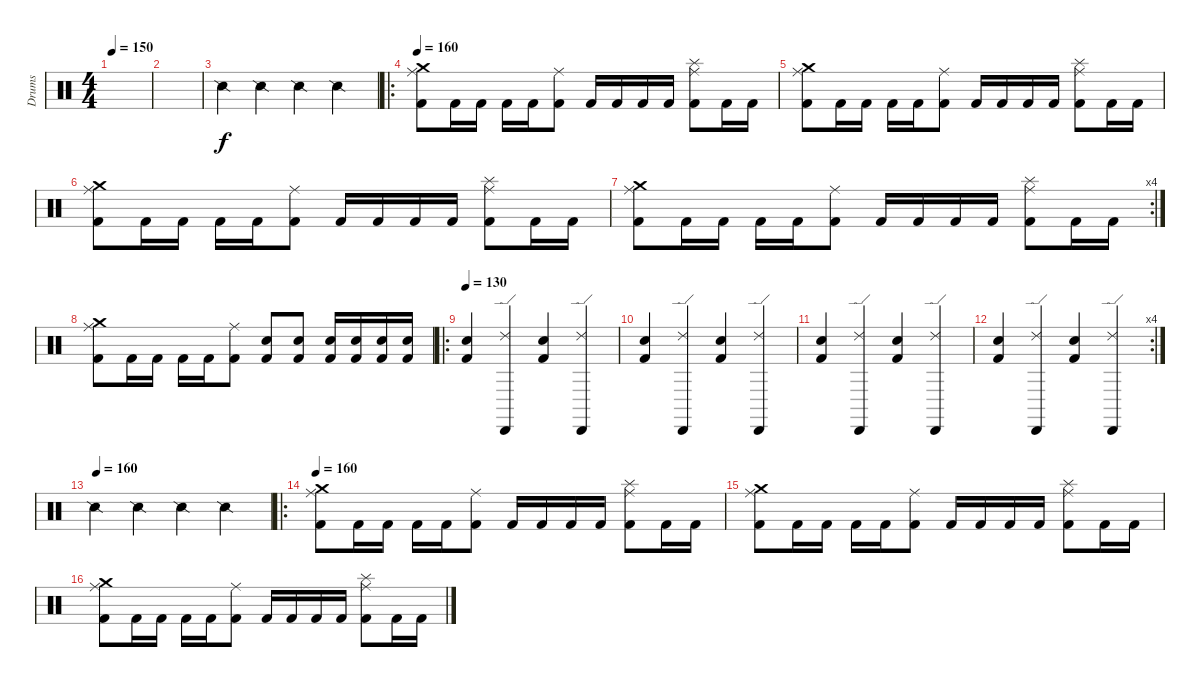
\track ("Drums" "Drums") {instrument percussion}
\staff {score}
\articulation defaults
\ts (4 4)
\tempo 150
\clef neutral
\ks c
|
|
"Snare (side stick) 2".4 "Snare (side stick) 2".4 "Snare (side stick) 2".4 "Snare (side stick) 2".4 |
\ro
\tempo 160
("Crash medium (hit)" "Ride (middle)" "Kick (hit) 2").8 "Kick (hit) 2".16 "Kick (hit) 2".16 "Kick (hit) 2".16 "Kick (hit) 2".16 ("Ride (middle)" "Kick (hit) 2").8 "Kick (hit) 2".16 "Kick (hit) 2".16 "Kick (hit) 2".16 "Kick (hit) 2".16 ("Splash (hit)" "Ride (middle)" "Kick (hit) 2").8 "Kick (hit) 2".16 "Kick (hit) 2".16 |
("Crash medium (hit)" "Ride (middle)" "Kick (hit) 2").8 "Kick (hit) 2".16 "Kick (hit) 2".16 "Kick (hit) 2".16 "Kick (hit) 2".16 ("Ride (middle)" "Kick (hit) 2").8 "Kick (hit) 2".16 "Kick (hit) 2".16 "Kick (hit) 2".16 "Kick (hit) 2".16 ("Splash (hit)" "Ride (middle)" "Kick (hit) 2").8 "Kick (hit) 2".16 "Kick (hit) 2".16 |
("Crash medium (hit)" "Ride (middle)" "Kick (hit) 2").8 "Kick (hit) 2".16 "Kick (hit) 2".16 "Kick (hit) 2".16 "Kick (hit) 2".16 ("Ride (middle)" "Kick (hit) 2").8 "Kick (hit) 2".16 "Kick (hit) 2".16 "Kick (hit) 2".16 "Kick (hit) 2".16 ("Splash (hit)" "Ride (middle)" "Kick (hit) 2").8 "Kick (hit) 2".16 "Kick (hit) 2".16 |
\rc 4
("Crash medium (hit)" "Ride (middle)" "Kick (hit) 2").8 "Kick (hit) 2".16 "Kick (hit) 2".16 "Kick (hit) 2".16 "Kick (hit) 2".16 ("Ride (middle)" "Kick (hit) 2").8 "Kick (hit) 2".16 "Kick (hit) 2".16 "Kick (hit) 2".16 "Kick (hit) 2".16 ("Splash (hit)" "Ride (middle)" "Kick (hit) 2").8 "Kick (hit) 2".16 "Kick (hit) 2".16 |
("Crash medium (hit)" "Ride (middle)" "Kick (hit) 2").8 "Kick (hit) 2".16 "Kick (hit) 2".16 "Kick (hit) 2".16 "Kick (hit) 2".16 ("Ride (middle)" "Kick (hit) 2").8 ("Snare (hit) 2" "Kick (hit) 2").8 ("Snare (hit) 2" "Kick (hit) 2").8 ("Snare (hit) 2" "Kick (hit) 2").16 ("Snare (hit) 2" "Kick (hit) 2").16 ("Snare (hit) 2" "Kick (hit) 2").16 ("Snare (hit) 2" "Kick (hit) 2").16 |
\ro
\tempo 130
("Kick (hit) 2" "Snare (hit) 2").4 ("Ride (edge) 2" "Cabasa (hit)").4 ("Kick (hit) 2" "Snare (hit) 2").4 ("Ride (edge) 2" "Cabasa (hit)").4 |
("Kick (hit) 2" "Snare (hit) 2").4 ("Ride (edge) 2" "Cabasa (hit)").4 ("Kick (hit) 2" "Snare (hit) 2").4 ("Ride (edge) 2" "Cabasa (hit)").4 |
("Kick (hit) 2" "Snare (hit) 2").4 ("Ride (edge) 2" "Cabasa (hit)").4 ("Kick (hit) 2" "Snare (hit) 2").4 ("Ride (edge) 2" "Cabasa (hit)").4 |
\rc 4
("Kick (hit) 2" "Snare (hit) 2").4 ("Ride (edge) 2" "Cabasa (hit)").4 ("Kick (hit) 2" "Snare (hit) 2").4 ("Ride (edge) 2" "Cabasa (hit)").4 |
\tempo (160)
"Snare (side stick) 2".4 "Snare (side stick) 2".4 "Snare (side stick) 2".4 "Snare (side stick) 2".4 |
\ro
\tempo 160
("Crash medium (hit)" "Ride (middle)" "Kick (hit) 2").8 "Kick (hit) 2".16 "Kick (hit) 2".16 "Kick (hit) 2".16 "Kick (hit) 2".16 ("Ride (middle)" "Kick (hit) 2").8 "Kick (hit) 2".16 "Kick (hit) 2".16 "Kick (hit) 2".16 "Kick (hit) 2".16 ("Splash (hit)" "Ride (middle)" "Kick (hit) 2").8 "Kick (hit) 2".16 "Kick (hit) 2".16 |
("Crash medium (hit)" "Ride (middle)" "Kick (hit) 2").8 "Kick (hit) 2".16 "Kick (hit) 2".16 "Kick (hit) 2".16 "Kick (hit) 2".16 ("Ride (middle)" "Kick (hit) 2").8 "Kick (hit) 2".16 "Kick (hit) 2".16 "Kick (hit) 2".16 "Kick (hit) 2".16 ("Splash (hit)" "Ride (middle)" "Kick (hit) 2").8 "Kick (hit) 2".16 "Kick (hit) 2".16 |
("Crash medium (hit)" "Ride (middle)" "Kick (hit) 2").8 "Kick (hit) 2".16 "Kick (hit) 2".16 "Kick (hit) 2".16 "Kick (hit) 2".16 ("Ride (middle)" "Kick (hit) 2").8 "Kick (hit) 2".16 "Kick (hit) 2".16 "Kick (hit) 2".16 "Kick (hit) 2".16 ("Splash (hit)" "Ride (middle)" "Kick (hit) 2").8 "Kick (hit) 2".16 "Kick (hit) 2".16
